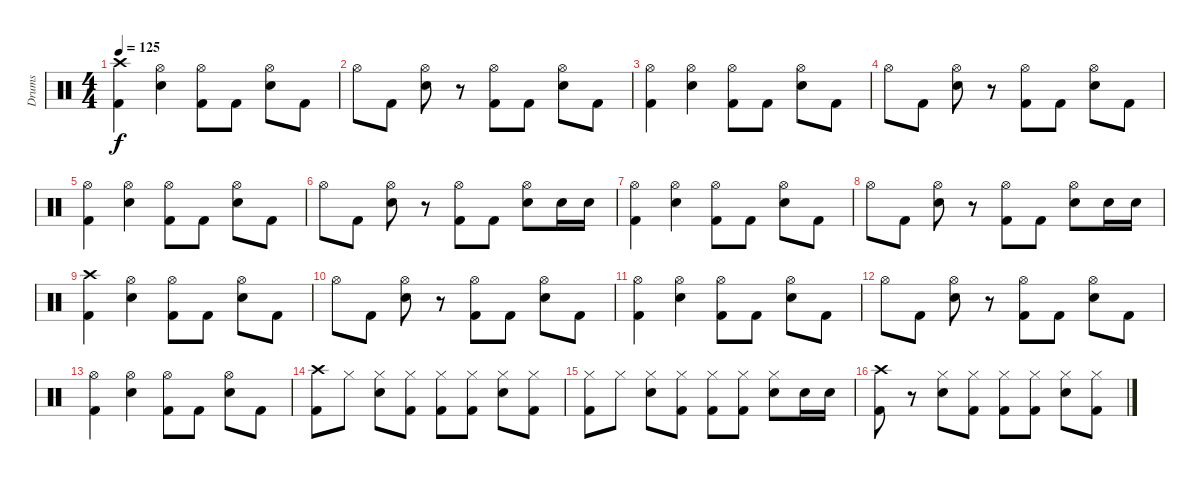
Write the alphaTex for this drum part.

\track ("Drums" "Drums") {instrument percussion}
\staff {score}
\articulation defaults
\ts (4 4)
\tempo 125
\clef neutral
\ks c
("Crash high (hit)" "Kick (hit) 2").4{dy f} ("Hi-Hat (open)" "Electric Snare (hit)").4 ("Hi-Hat (open)" "Kick (hit) 2").8 "Kick (hit) 2".8 ("Hi-Hat (open)" "Electric Snare (hit)").8 "Kick (hit) 2".8 |
"Hi-Hat (open)".8 "Kick (hit) 2".8 ("Hi-Hat (open)" "Electric Snare (hit)").8 r.8 ("Hi-Hat (open)" "Kick (hit) 2").8 "Kick (hit) 2".8 ("Hi-Hat (open)" "Electric Snare (hit)").8 "Kick (hit) 2".8 |
("Hi-Hat (open)" "Kick (hit) 2").4 ("Hi-Hat (open)" "Electric Snare (hit)").4 ("Hi-Hat (open)" "Kick (hit) 2").8 "Kick (hit) 2".8 ("Hi-Hat (open)" "Electric Snare (hit)").8 "Kick (hit) 2".8 |
"Hi-Hat (open)".8 "Kick (hit) 2".8 ("Hi-Hat (open)" "Electric Snare (hit)").8 r.8 ("Hi-Hat (open)" "Kick (hit) 2").8 "Kick (hit) 2".8 ("Hi-Hat (open)" "Electric Snare (hit)").8 "Kick (hit) 2".8 |
("Hi-Hat (open)" "Kick (hit) 2").4 ("Hi-Hat (open)" "Electric Snare (hit)").4 ("Hi-Hat (open)" "Kick (hit) 2").8 "Kick (hit) 2".8 ("Hi-Hat (open)" "Electric Snare (hit)").8 "Kick (hit) 2".8 |
"Hi-Hat (open)".8 "Kick (hit) 2".8 ("Hi-Hat (open)" "Electric Snare (hit)").8 r.8 ("Hi-Hat (open)" "Kick (hit) 2").8 "Kick (hit) 2".8 ("Hi-Hat (open)" "Electric Snare (hit)").8 "Electric Snare (hit)".16 "Electric Snare (hit)".16 |
("Hi-Hat (open)" "Kick (hit) 2").4 ("Hi-Hat (open)" "Electric Snare (hit)").4 ("Hi-Hat (open)" "Kick (hit) 2").8 "Kick (hit) 2".8 ("Hi-Hat (open)" "Electric Snare (hit)").8 "Kick (hit) 2".8 |
"Hi-Hat (open)".8 "Kick (hit) 2".8 ("Hi-Hat (open)" "Electric Snare (hit)").8 r.8 ("Hi-Hat (open)" "Kick (hit) 2").8 "Kick (hit) 2".8 ("Hi-Hat (open)" "Electric Snare (hit)").8 "Electric Snare (hit)".16 "Electric Snare (hit)".16 |
("Crash high (hit)" "Kick (hit) 2").4 ("Hi-Hat (open)" "Electric Snare (hit)").4 ("Hi-Hat (open)" "Kick (hit) 2").8 "Kick (hit) 2".8 ("Hi-Hat (open)" "Electric Snare (hit)").8 "Kick (hit) 2".8 |
"Hi-Hat (open)".8 "Kick (hit) 2".8 ("Hi-Hat (open)" "Electric Snare (hit)").8 r.8 ("Hi-Hat (open)" "Kick (hit) 2").8 "Kick (hit) 2".8 ("Hi-Hat (open)" "Electric Snare (hit)").8 "Kick (hit) 2".8 |
("Hi-Hat (open)" "Kick (hit) 2").4 ("Hi-Hat (open)" "Electric Snare (hit)").4 ("Hi-Hat (open)" "Kick (hit) 2").8 "Kick (hit) 2".8 ("Hi-Hat (open)" "Electric Snare (hit)").8 "Kick (hit) 2".8 |
"Hi-Hat (open)".8 "Kick (hit) 2".8 ("Hi-Hat (open)" "Electric Snare (hit)").8 r.8 ("Hi-Hat (open)" "Kick (hit) 2").8 "Kick (hit) 2".8 ("Hi-Hat (open)" "Electric Snare (hit)").8 "Kick (hit) 2".8 |
("Hi-Hat (open)" "Kick (hit) 2").4 ("Hi-Hat (open)" "Electric Snare (hit)").4 ("Hi-Hat (open)" "Kick (hit) 2").8 "Kick (hit) 2".8 ("Hi-Hat (open)" "Electric Snare (hit)").8 "Kick (hit) 2".8 |
("Crash high (hit)" "Kick (hit) 2").8 "Hi-Hat (closed)".8 ("Hi-Hat (closed)" "Electric Snare (hit)").8 ("Hi-Hat (closed)" "Kick (hit) 2").8 ("Hi-Hat (closed)" "Kick (hit) 2").8 ("Hi-Hat (closed)" "Kick (hit) 2").8 ("Hi-Hat (closed)" "Electric Snare (hit)").8 ("Hi-Hat (closed)" "Kick (hit) 2").8 |
("Hi-Hat (closed)" "Kick (hit) 2").8 "Hi-Hat (closed)".8 ("Hi-Hat (closed)" "Electric Snare (hit)").8 ("Hi-Hat (closed)" "Kick (hit) 2").8 ("Hi-Hat (closed)" "Kick (hit) 2").8 ("Hi-Hat (closed)" "Kick (hit) 2").8 ("Hi-Hat (closed)" "Electric Snare (hit)").8 "Electric Snare (hit)".16 "Electric Snare (hit)".16 |
("Crash high (hit)" "Kick (hit) 2").8 r.8 ("Hi-Hat (closed)" "Electric Snare (hit)").8 ("Hi-Hat (closed)" "Kick (hit) 2").8 ("Hi-Hat (closed)" "Kick (hit) 2").8 ("Hi-Hat (closed)" "Kick (hit) 2").8 ("Hi-Hat (closed)" "Electric Snare (hit)").8 ("Hi-Hat (closed)" "Kick (hit) 2").8
